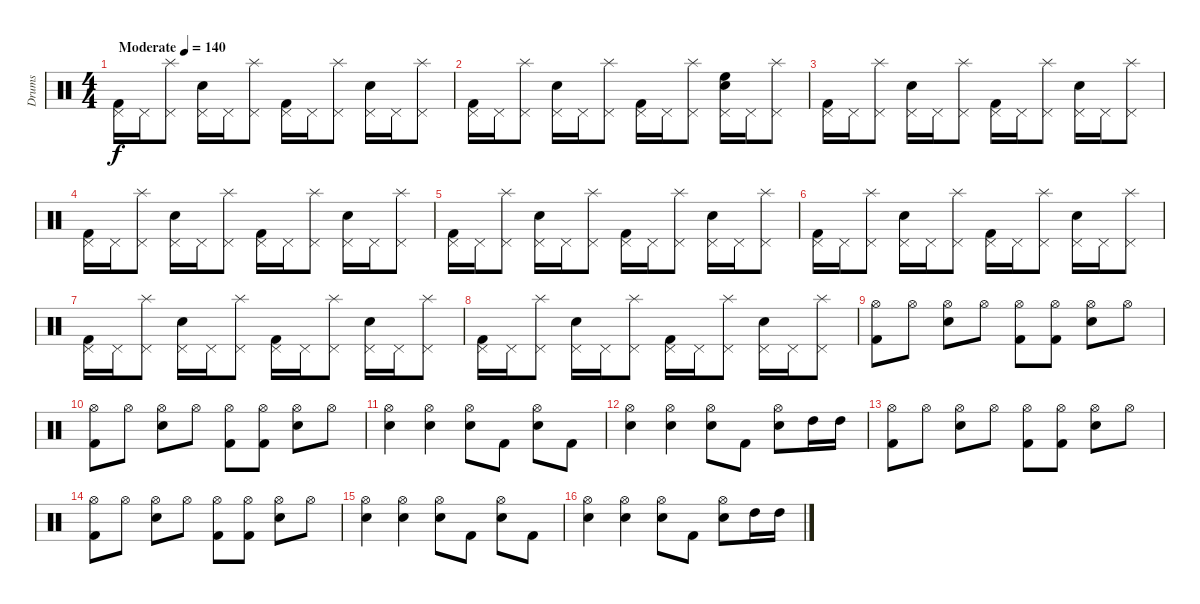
\track ("Drums" "Drums") {instrument percussion}
\staff {score}
\articulation defaults
\ts (4 4)
\tempo (140 "Moderate")
\clef neutral
\ks c
("Kick (hit) 2" "Pedal Hi-Hat (hit)").16{dy f} "Pedal Hi-Hat (hit)".16 ("Pedal Hi-Hat (hit)" "Splash (hit)").8 ("Snare (hit) 2" "Pedal Hi-Hat (hit)").16 "Pedal Hi-Hat (hit)".16 ("Pedal Hi-Hat (hit)" "Splash (hit)").8 ("Kick (hit) 2" "Pedal Hi-Hat (hit)").16 "Pedal Hi-Hat (hit)".16 ("Pedal Hi-Hat (hit)" "Splash (hit)").8 ("Snare (hit) 2" "Pedal Hi-Hat (hit)").16 "Pedal Hi-Hat (hit)".16 ("Pedal Hi-Hat (hit)" "Splash (hit)").8 |
("Kick (hit) 2" "Pedal Hi-Hat (hit)").16 "Pedal Hi-Hat (hit)".16 ("Pedal Hi-Hat (hit)" "Splash (hit)").8 ("Snare (hit) 2" "Pedal Hi-Hat (hit)").16 "Pedal Hi-Hat (hit)".16 ("Pedal Hi-Hat (hit)" "Splash (hit)").8 ("Kick (hit) 2" "Pedal Hi-Hat (hit)").16 "Pedal Hi-Hat (hit)".16 ("Pedal Hi-Hat (hit)" "Splash (hit)").8 ("Snare (hit) 2" "High Floor Tom (hit)" "Pedal Hi-Hat (hit)").16 "Pedal Hi-Hat (hit)".16 ("Pedal Hi-Hat (hit)" "Splash (hit)").8 |
("Kick (hit) 2" "Pedal Hi-Hat (hit)").16 "Pedal Hi-Hat (hit)".16 ("Pedal Hi-Hat (hit)" "Splash (hit)").8 ("Snare (hit) 2" "Pedal Hi-Hat (hit)").16 "Pedal Hi-Hat (hit)".16 ("Pedal Hi-Hat (hit)" "Splash (hit)").8 ("Kick (hit) 2" "Pedal Hi-Hat (hit)").16 "Pedal Hi-Hat (hit)".16 ("Pedal Hi-Hat (hit)" "Splash (hit)").8 ("Snare (hit) 2" "Pedal Hi-Hat (hit)").16 "Pedal Hi-Hat (hit)".16 ("Pedal Hi-Hat (hit)" "Splash (hit)").8 |
("Kick (hit) 2" "Pedal Hi-Hat (hit)").16 "Pedal Hi-Hat (hit)".16 ("Pedal Hi-Hat (hit)" "Splash (hit)").8 ("Snare (hit) 2" "Pedal Hi-Hat (hit)").16 "Pedal Hi-Hat (hit)".16 ("Pedal Hi-Hat (hit)" "Splash (hit)").8 ("Kick (hit) 2" "Pedal Hi-Hat (hit)").16 "Pedal Hi-Hat (hit)".16 ("Pedal Hi-Hat (hit)" "Splash (hit)").8 ("Snare (hit) 2" "Pedal Hi-Hat (hit)").16 "Pedal Hi-Hat (hit)".16 ("Pedal Hi-Hat (hit)" "Splash (hit)").8 |
("Kick (hit) 2" "Pedal Hi-Hat (hit)").16 "Pedal Hi-Hat (hit)".16 ("Pedal Hi-Hat (hit)" "Splash (hit)").8 ("Snare (hit) 2" "Pedal Hi-Hat (hit)").16 "Pedal Hi-Hat (hit)".16 ("Pedal Hi-Hat (hit)" "Splash (hit)").8 ("Kick (hit) 2" "Pedal Hi-Hat (hit)").16 "Pedal Hi-Hat (hit)".16 ("Pedal Hi-Hat (hit)" "Splash (hit)").8 ("Snare (hit) 2" "Pedal Hi-Hat (hit)").16 "Pedal Hi-Hat (hit)".16 ("Pedal Hi-Hat (hit)" "Splash (hit)").8 |
("Kick (hit) 2" "Pedal Hi-Hat (hit)").16 "Pedal Hi-Hat (hit)".16 ("Pedal Hi-Hat (hit)" "Splash (hit)").8 ("Snare (hit) 2" "Pedal Hi-Hat (hit)").16 "Pedal Hi-Hat (hit)".16 ("Pedal Hi-Hat (hit)" "Splash (hit)").8 ("Kick (hit) 2" "Pedal Hi-Hat (hit)").16 "Pedal Hi-Hat (hit)".16 ("Pedal Hi-Hat (hit)" "Splash (hit)").8 ("Snare (hit) 2" "Pedal Hi-Hat (hit)").16 "Pedal Hi-Hat (hit)".16 ("Pedal Hi-Hat (hit)" "Splash (hit)").8 |
("Kick (hit) 2" "Pedal Hi-Hat (hit)").16 "Pedal Hi-Hat (hit)".16 ("Pedal Hi-Hat (hit)" "Splash (hit)").8 ("Snare (hit) 2" "Pedal Hi-Hat (hit)").16 "Pedal Hi-Hat (hit)".16 ("Pedal Hi-Hat (hit)" "Splash (hit)").8 ("Kick (hit) 2" "Pedal Hi-Hat (hit)").16 "Pedal Hi-Hat (hit)".16 ("Pedal Hi-Hat (hit)" "Splash (hit)").8 ("Snare (hit) 2" "Pedal Hi-Hat (hit)").16 "Pedal Hi-Hat (hit)".16 ("Pedal Hi-Hat (hit)" "Splash (hit)").8 |
("Kick (hit) 2" "Pedal Hi-Hat (hit)").16 "Pedal Hi-Hat (hit)".16 ("Pedal Hi-Hat (hit)" "Splash (hit)").8 ("Snare (hit) 2" "Pedal Hi-Hat (hit)").16 "Pedal Hi-Hat (hit)".16 ("Pedal Hi-Hat (hit)" "Splash (hit)").8 ("Kick (hit) 2" "Pedal Hi-Hat (hit)").16 "Pedal Hi-Hat (hit)".16 ("Pedal Hi-Hat (hit)" "Splash (hit)").8 ("Snare (hit) 2" "Pedal Hi-Hat (hit)").16 "Pedal Hi-Hat (hit)".16 ("Pedal Hi-Hat (hit)" "Splash (hit)").8 |
("Kick (hit) 2" "Hi-Hat (open)").8 "Hi-Hat (open)".8 ("Snare (hit) 2" "Hi-Hat (open)").8 "Hi-Hat (open)".8 ("Kick (hit) 2" "Hi-Hat (open)").8 ("Kick (hit) 2" "Hi-Hat (open)").8 ("Snare (hit) 2" "Hi-Hat (open)").8 "Hi-Hat (open)".8 |
("Kick (hit) 2" "Hi-Hat (open)").8 "Hi-Hat (open)".8 ("Snare (hit) 2" "Hi-Hat (open)").8 "Hi-Hat (open)".8 ("Kick (hit) 2" "Hi-Hat (open)").8 ("Kick (hit) 2" "Hi-Hat (open)").8 ("Snare (hit) 2" "Hi-Hat (open)").8 "Hi-Hat (open)".8 |
("Snare (hit) 2" "Hi-Hat (open)").4 ("Snare (hit) 2" "Hi-Hat (open)").4 ("Snare (hit) 2" "Hi-Hat (open)").8 "Kick (hit) 2".8 ("Snare (hit) 2" "Hi-Hat (open)").8 "Kick (hit) 2".8 |
("Snare (hit) 2" "Hi-Hat (open)").4 ("Snare (hit) 2" "Hi-Hat (open)").4 ("Snare (hit) 2" "Hi-Hat (open)").8 "Kick (hit) 2".8 ("Snare (hit) 2" "Hi-Hat (open)").8 "High Tom (hit)".16 "High Tom (hit)".16 |
("Kick (hit) 2" "Hi-Hat (open)").8 "Hi-Hat (open)".8 ("Snare (hit) 2" "Hi-Hat (open)").8 "Hi-Hat (open)".8 ("Kick (hit) 2" "Hi-Hat (open)").8 ("Kick (hit) 2" "Hi-Hat (open)").8 ("Snare (hit) 2" "Hi-Hat (open)").8 "Hi-Hat (open)".8 |
("Kick (hit) 2" "Hi-Hat (open)").8 "Hi-Hat (open)".8 ("Snare (hit) 2" "Hi-Hat (open)").8 "Hi-Hat (open)".8 ("Kick (hit) 2" "Hi-Hat (open)").8 ("Kick (hit) 2" "Hi-Hat (open)").8 ("Snare (hit) 2" "Hi-Hat (open)").8 "Hi-Hat (open)".8 |
("Snare (hit) 2" "Hi-Hat (open)").4 ("Snare (hit) 2" "Hi-Hat (open)").4 ("Snare (hit) 2" "Hi-Hat (open)").8 "Kick (hit) 2".8 ("Snare (hit) 2" "Hi-Hat (open)").8 "Kick (hit) 2".8 |
("Snare (hit) 2" "Hi-Hat (open)").4 ("Snare (hit) 2" "Hi-Hat (open)").4 ("Snare (hit) 2" "Hi-Hat (open)").8 "Kick (hit) 2".8 ("Snare (hit) 2" "Hi-Hat (open)").8 "High Tom (hit)".16 "High Tom (hit)".16
